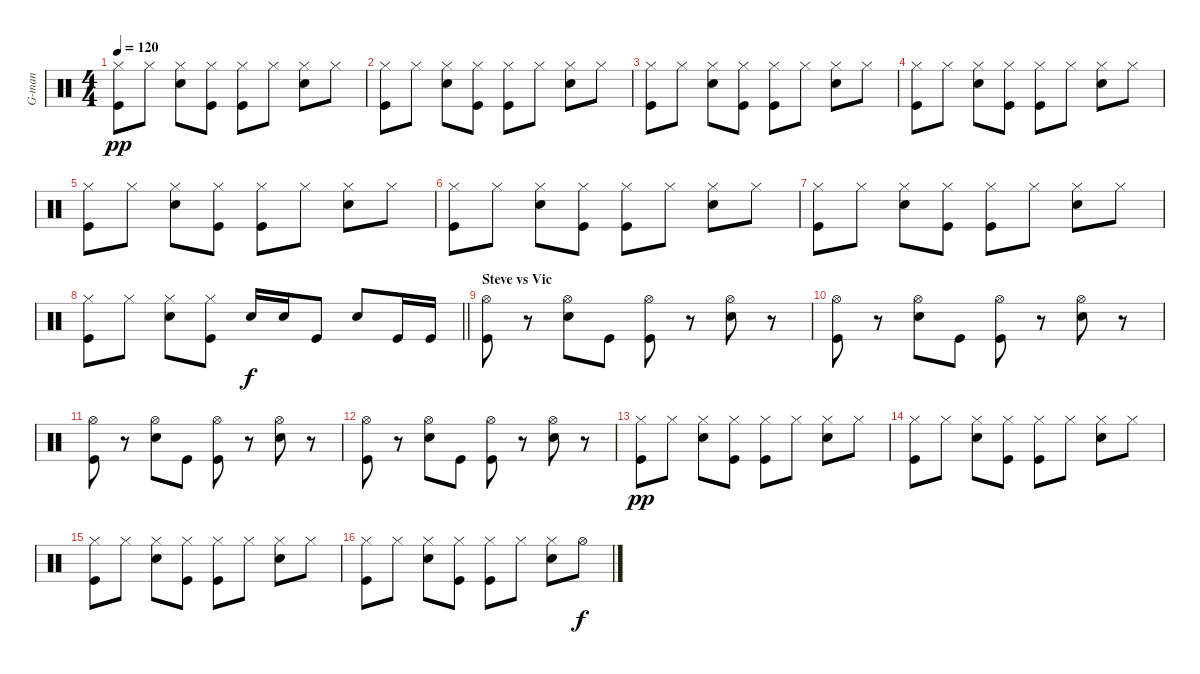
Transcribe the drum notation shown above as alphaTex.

\track ("G-man" "G-man") {instrument percussion}
\staff {score}
\articulation defaults
\ts (4 4)
\tempo 120
\clef neutral
\ks c
("Hi-Hat (closed)" "Kick (hit)").8{dy pp} "Hi-Hat (closed)".8 ("Hi-Hat (closed)" "Snare (hit) 2").8 ("Hi-Hat (closed)" "Kick (hit)").8 ("Hi-Hat (closed)" "Kick (hit)").8 "Hi-Hat (closed)".8 ("Hi-Hat (closed)" "Snare (hit) 2").8 "Hi-Hat (closed)".8 |
("Hi-Hat (closed)" "Kick (hit)").8 "Hi-Hat (closed)".8 ("Hi-Hat (closed)" "Snare (hit) 2").8 ("Hi-Hat (closed)" "Kick (hit)").8 ("Hi-Hat (closed)" "Kick (hit)").8 "Hi-Hat (closed)".8 ("Hi-Hat (closed)" "Snare (hit) 2").8 "Hi-Hat (closed)".8 |
("Hi-Hat (closed)" "Kick (hit)").8 "Hi-Hat (closed)".8 ("Hi-Hat (closed)" "Snare (hit) 2").8 ("Hi-Hat (closed)" "Kick (hit)").8 ("Hi-Hat (closed)" "Kick (hit)").8 "Hi-Hat (closed)".8 ("Hi-Hat (closed)" "Snare (hit) 2").8 "Hi-Hat (closed)".8 |
("Hi-Hat (closed)" "Kick (hit)").8 "Hi-Hat (closed)".8 ("Hi-Hat (closed)" "Snare (hit) 2").8 ("Hi-Hat (closed)" "Kick (hit)").8 ("Hi-Hat (closed)" "Kick (hit)").8 "Hi-Hat (closed)".8 ("Hi-Hat (closed)" "Snare (hit) 2").8 "Hi-Hat (closed)".8 |
("Hi-Hat (closed)" "Kick (hit)").8 "Hi-Hat (closed)".8 ("Hi-Hat (closed)" "Snare (hit) 2").8 ("Hi-Hat (closed)" "Kick (hit)").8 ("Hi-Hat (closed)" "Kick (hit)").8 "Hi-Hat (closed)".8 ("Hi-Hat (closed)" "Snare (hit) 2").8 "Hi-Hat (closed)".8 |
("Hi-Hat (closed)" "Kick (hit)").8 "Hi-Hat (closed)".8 ("Hi-Hat (closed)" "Snare (hit) 2").8 ("Hi-Hat (closed)" "Kick (hit)").8 ("Hi-Hat (closed)" "Kick (hit)").8 "Hi-Hat (closed)".8 ("Hi-Hat (closed)" "Snare (hit) 2").8 "Hi-Hat (closed)".8 |
("Hi-Hat (closed)" "Kick (hit)").8 "Hi-Hat (closed)".8 ("Hi-Hat (closed)" "Snare (hit) 2").8 ("Hi-Hat (closed)" "Kick (hit)").8 ("Hi-Hat (closed)" "Kick (hit)").8 "Hi-Hat (closed)".8 ("Hi-Hat (closed)" "Snare (hit) 2").8 "Hi-Hat (closed)".8 |
\barLineRight lightlight
("Hi-Hat (closed)" "Kick (hit)").8 "Hi-Hat (closed)".8 ("Hi-Hat (closed)" "Snare (hit) 2").8 ("Hi-Hat (closed)" "Kick (hit)").8 "Snare (hit) 2".16{dy f} "Snare (hit) 2".16 "Kick (hit)".8 "Snare (hit) 2".8 "Kick (hit)".16 "Kick (hit)".16 |
\section ("" "Steve vs Vic")
("Hi-Hat (open)" "Kick (hit)").8 r.8 ("Hi-Hat (open)" "Snare (hit) 2").8 "Kick (hit)".8 ("Hi-Hat (open)" "Kick (hit)").8 r.8 ("Hi-Hat (open)" "Snare (hit) 2").8 r.8 |
("Hi-Hat (open)" "Kick (hit)").8 r.8 ("Hi-Hat (open)" "Snare (hit) 2").8 "Kick (hit)".8 ("Hi-Hat (open)" "Kick (hit)").8 r.8 ("Hi-Hat (open)" "Snare (hit) 2").8 r.8 |
("Hi-Hat (open)" "Kick (hit)").8 r.8 ("Hi-Hat (open)" "Snare (hit) 2").8 "Kick (hit)".8 ("Hi-Hat (open)" "Kick (hit)").8 r.8 ("Hi-Hat (open)" "Snare (hit) 2").8 r.8 |
("Hi-Hat (open)" "Kick (hit)").8 r.8 ("Hi-Hat (open)" "Snare (hit) 2").8 "Kick (hit)".8 ("Hi-Hat (open)" "Kick (hit)").8 r.8 ("Hi-Hat (open)" "Snare (hit) 2").8 r.8 |
("Hi-Hat (closed)" "Kick (hit)").8{dy pp} "Hi-Hat (closed)".8 ("Hi-Hat (closed)" "Snare (hit) 2").8 ("Hi-Hat (closed)" "Kick (hit)").8 ("Hi-Hat (closed)" "Kick (hit)").8 "Hi-Hat (closed)".8 ("Hi-Hat (closed)" "Snare (hit) 2").8 "Hi-Hat (closed)".8 |
("Hi-Hat (closed)" "Kick (hit)").8 "Hi-Hat (closed)".8 ("Hi-Hat (closed)" "Snare (hit) 2").8 ("Hi-Hat (closed)" "Kick (hit)").8 ("Hi-Hat (closed)" "Kick (hit)").8 "Hi-Hat (closed)".8 ("Hi-Hat (closed)" "Snare (hit) 2").8 "Hi-Hat (closed)".8 |
("Hi-Hat (closed)" "Kick (hit)").8 "Hi-Hat (closed)".8 ("Hi-Hat (closed)" "Snare (hit) 2").8 ("Hi-Hat (closed)" "Kick (hit)").8 ("Hi-Hat (closed)" "Kick (hit)").8 "Hi-Hat (closed)".8 ("Hi-Hat (closed)" "Snare (hit) 2").8 "Hi-Hat (closed)".8 |
("Hi-Hat (closed)" "Kick (hit)").8 "Hi-Hat (closed)".8 ("Hi-Hat (closed)" "Snare (hit) 2").8 ("Hi-Hat (closed)" "Kick (hit)").8 ("Hi-Hat (closed)" "Kick (hit)").8 "Hi-Hat (closed)".8 ("Hi-Hat (closed)" "Snare (hit) 2").8 "Hi-Hat (open)".8{dy f}
